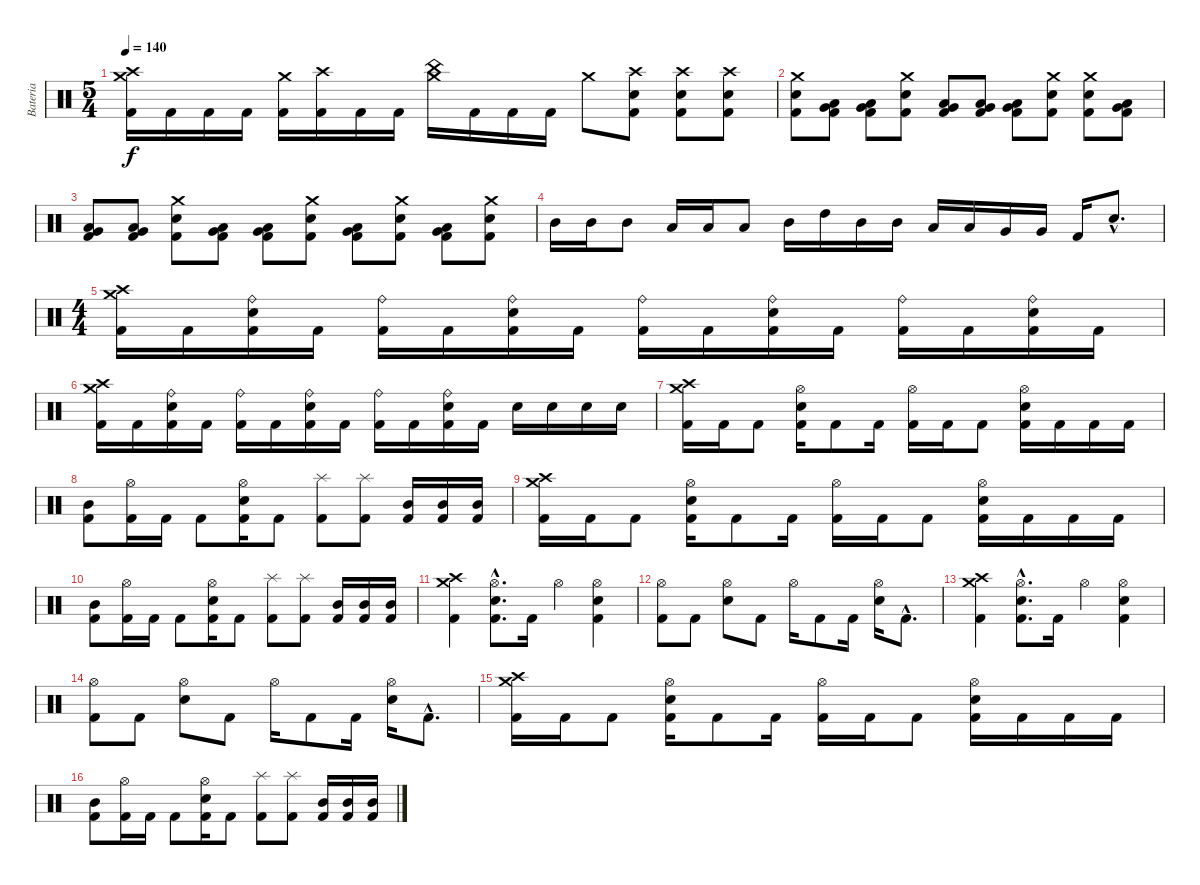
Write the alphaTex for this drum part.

\track ("Bateria" "Bateria") {instrument percussion}
\staff {score}
\articulation defaults
\ts (5 4)
\tempo 140
\clef neutral
\ks c
("Crash medium (hit)" "Crash high (hit)" "Kick (hit) 2").16{dy f} "Kick (hit) 2".16 "Kick (hit) 2".16 "Kick (hit) 2".16 ("Crash medium (hit)" "Kick (hit) 2").16 ("Crash high (hit)" "Kick (hit) 2").16 "Kick (hit) 2".16 "Kick (hit) 2".16 ("China (hit)" "Crash medium (hit)").16 "Kick (hit) 2".16 "Kick (hit) 2".16 "Kick (hit) 2".16 "Crash medium (hit)".8 ("Crash high (hit)" "Snare (hit) 2" "Kick (hit) 2").8 ("Crash high (hit)" "Snare (hit) 2" "Kick (hit) 2").8 ("Crash high (hit)" "Snare (hit) 2" "Kick (hit) 2").8 |
("Crash medium (hit)" "Snare (hit) 2" "Kick (hit) 2").8 ("Very Low Tom (hit)" "Low Tom (hit)" "Kick (hit) 2").8 ("Very Low Tom (hit)" "Low Tom (hit)" "Kick (hit) 2").8 ("Crash medium (hit)" "Snare (hit) 2" "Kick (hit) 2").8 ("Very Low Tom (hit)" "Low Tom (hit)" "Kick (hit) 2").8 ("Very Low Tom (hit)" "Low Tom (hit)" "Kick (hit) 2").8 ("Very Low Tom (hit)" "Low Tom (hit)" "Kick (hit) 2").8 ("Crash medium (hit)" "Snare (hit) 2" "Kick (hit) 2").8 ("Crash medium (hit)" "Snare (hit) 2" "Kick (hit) 2").8 ("Very Low Tom (hit)" "Low Tom (hit)" "Kick (hit) 2").8 |
("Very Low Tom (hit)" "Low Tom (hit)" "Kick (hit) 2").8 ("Very Low Tom (hit)" "Low Tom (hit)" "Kick (hit) 2").8 ("Crash medium (hit)" "Snare (hit) 2" "Kick (hit) 2").8 ("Very Low Tom (hit)" "Low Tom (hit)" "Kick (hit) 2").8 ("Very Low Tom (hit)" "Low Tom (hit)" "Kick (hit) 2").8 ("Crash medium (hit)" "Snare (hit) 2" "Kick (hit) 2").8 ("Very Low Tom (hit)" "Low Tom (hit)" "Kick (hit) 2").8 ("Crash medium (hit)" "Snare (hit) 2" "Kick (hit) 2").8 ("Very Low Tom (hit)" "Low Tom (hit)" "Kick (hit) 2").8 ("Crash medium (hit)" "Snare (hit) 2" "Kick (hit) 2").8 |
"Mid Tom (hit)".16 "Mid Tom (hit)".16 "Mid Tom (hit)".8 "Low Tom (hit)".16 "Low Tom (hit)".16 "Low Tom (hit)".8 "Mid Tom (hit)".16 "High Tom (hit)".16 "Mid Tom (hit)".16 "Mid Tom (hit)".16 "Low Tom (hit)".16 "Low Tom (hit)".16 "Very Low Tom (hit)".16 "Very Low Tom (hit)".16 "Kick (hit) 2".16 "Snare (hit) 2"{hac}.8{d} |
\ts (4 4)
("Crash high (hit)" "Crash medium (hit)" "Kick (hit) 2").16 "Kick (hit) 2".16 ("Ride (bell)" "Snare (hit) 2" "Kick (hit) 2").16 "Kick (hit) 2".16 ("Ride (bell)" "Kick (hit) 2").16 "Kick (hit) 2".16 ("Ride (bell)" "Snare (hit) 2" "Kick (hit) 2").16 "Kick (hit) 2".16 ("Ride (bell)" "Kick (hit) 2").16 "Kick (hit) 2".16 ("Ride (bell)" "Snare (hit) 2" "Kick (hit) 2").16 "Kick (hit) 2".16 ("Ride (bell)" "Kick (hit) 2").16 "Kick (hit) 2".16 ("Ride (bell)" "Snare (hit) 2" "Kick (hit) 2").16 "Kick (hit) 2".16 |
("Crash high (hit)" "Crash medium (hit)" "Kick (hit) 2").16 "Kick (hit) 2".16 ("Ride (bell)" "Snare (hit) 2" "Kick (hit) 2").16 "Kick (hit) 2".16 ("Ride (bell)" "Kick (hit) 2").16 "Kick (hit) 2".16 ("Ride (bell)" "Snare (hit) 2" "Kick (hit) 2").16 "Kick (hit) 2".16 ("Ride (bell)" "Kick (hit) 2").16 "Kick (hit) 2".16 ("Ride (bell)" "Snare (hit) 2" "Kick (hit) 2").16 "Kick (hit) 2".16 "Snare (hit) 2".16 "Snare (hit) 2".16 "Snare (hit) 2".16 "Snare (hit) 2".16 |
("Crash medium (hit)" "Crash high (hit)" "Kick (hit) 2").16 "Kick (hit) 2".16 "Kick (hit) 2".8 ("Hi-Hat (open)" "Snare (hit) 2" "Kick (hit) 2").16 "Kick (hit) 2".8 "Kick (hit) 2".16 ("Hi-Hat (open)" "Kick (hit) 2").16 "Kick (hit) 2".16 "Kick (hit) 2".8 ("Hi-Hat (open)" "Snare (hit) 2" "Kick (hit) 2").16 "Kick (hit) 2".16 "Kick (hit) 2".16 "Kick (hit) 2".16 |
("Mid Tom (hit)" "Kick (hit) 2").8 ("Hi-Hat (open)" "Kick (hit) 2").16 "Kick (hit) 2".16 "Kick (hit) 2".8 ("Hi-Hat (open)" "Snare (hit) 2" "Kick (hit) 2").16 "Kick (hit) 2".8 ("Splash (hit)" "Kick (hit) 2").8 ("Splash (hit)" "Kick (hit) 2").8 ("Mid Tom (hit)" "Kick (hit) 2").16 ("Mid Tom (hit)" "Kick (hit) 2").16 ("Mid Tom (hit)" "Kick (hit) 2").16 |
("Crash medium (hit)" "Crash high (hit)" "Kick (hit) 2").16 "Kick (hit) 2".16 "Kick (hit) 2".8 ("Hi-Hat (open)" "Snare (hit) 2" "Kick (hit) 2").16 "Kick (hit) 2".8 "Kick (hit) 2".16 ("Hi-Hat (open)" "Kick (hit) 2").16 "Kick (hit) 2".16 "Kick (hit) 2".8 ("Hi-Hat (open)" "Snare (hit) 2" "Kick (hit) 2").16 "Kick (hit) 2".16 "Kick (hit) 2".16 "Kick (hit) 2".16 |
("Mid Tom (hit)" "Kick (hit) 2").8 ("Hi-Hat (open)" "Kick (hit) 2").16 "Kick (hit) 2".16 "Kick (hit) 2".8 ("Hi-Hat (open)" "Snare (hit) 2" "Kick (hit) 2").16 "Kick (hit) 2".8 ("Splash (hit)" "Kick (hit) 2").8 ("Splash (hit)" "Kick (hit) 2").8 ("Mid Tom (hit)" "Kick (hit) 2").16 ("Mid Tom (hit)" "Kick (hit) 2").16 ("Mid Tom (hit)" "Kick (hit) 2").16 |
("Crash high (hit)" "Crash medium (hit)" "Kick (hit) 2").4 ("Hi-Hat (open)"{hac} "Snare (hit) 2"{hac} "Kick (hit) 2"{hac}).8{d} "Kick (hit) 2".16 "Hi-Hat (open)".4 ("Hi-Hat (open)" "Snare (hit) 2" "Kick (hit) 2").4 |
("Hi-Hat (open)" "Kick (hit) 2").8 "Kick (hit) 2".8 ("Hi-Hat (open)" "Snare (hit) 2").8 "Kick (hit) 2".8 "Hi-Hat (open)".16 "Kick (hit) 2".8 "Kick (hit) 2".16 ("Hi-Hat (open)" "Snare (hit) 2").16 "Kick (hit) 2"{hac}.8{d} |
("Crash high (hit)" "Crash medium (hit)" "Kick (hit) 2").4 ("Hi-Hat (open)"{hac} "Snare (hit) 2"{hac} "Kick (hit) 2"{hac}).8{d} "Kick (hit) 2".16 "Hi-Hat (open)".4 ("Hi-Hat (open)" "Snare (hit) 2" "Kick (hit) 2").4 |
("Hi-Hat (open)" "Kick (hit) 2").8 "Kick (hit) 2".8 ("Hi-Hat (open)" "Snare (hit) 2").8 "Kick (hit) 2".8 "Hi-Hat (open)".16 "Kick (hit) 2".8 "Kick (hit) 2".16 ("Hi-Hat (open)" "Snare (hit) 2").16 "Kick (hit) 2"{hac}.8{d} |
("Crash medium (hit)" "Crash high (hit)" "Kick (hit) 2").16 "Kick (hit) 2".16 "Kick (hit) 2".8 ("Hi-Hat (open)" "Snare (hit) 2" "Kick (hit) 2").16 "Kick (hit) 2".8 "Kick (hit) 2".16 ("Hi-Hat (open)" "Kick (hit) 2").16 "Kick (hit) 2".16 "Kick (hit) 2".8 ("Hi-Hat (open)" "Snare (hit) 2" "Kick (hit) 2").16 "Kick (hit) 2".16 "Kick (hit) 2".16 "Kick (hit) 2".16 |
("Mid Tom (hit)" "Kick (hit) 2").8 ("Hi-Hat (open)" "Kick (hit) 2").16 "Kick (hit) 2".16 "Kick (hit) 2".8 ("Hi-Hat (open)" "Snare (hit) 2" "Kick (hit) 2").16 "Kick (hit) 2".8 ("Splash (hit)" "Kick (hit) 2").8 ("Splash (hit)" "Kick (hit) 2").8 ("Mid Tom (hit)" "Kick (hit) 2").16 ("Mid Tom (hit)" "Kick (hit) 2").16 ("Mid Tom (hit)" "Kick (hit) 2").16
